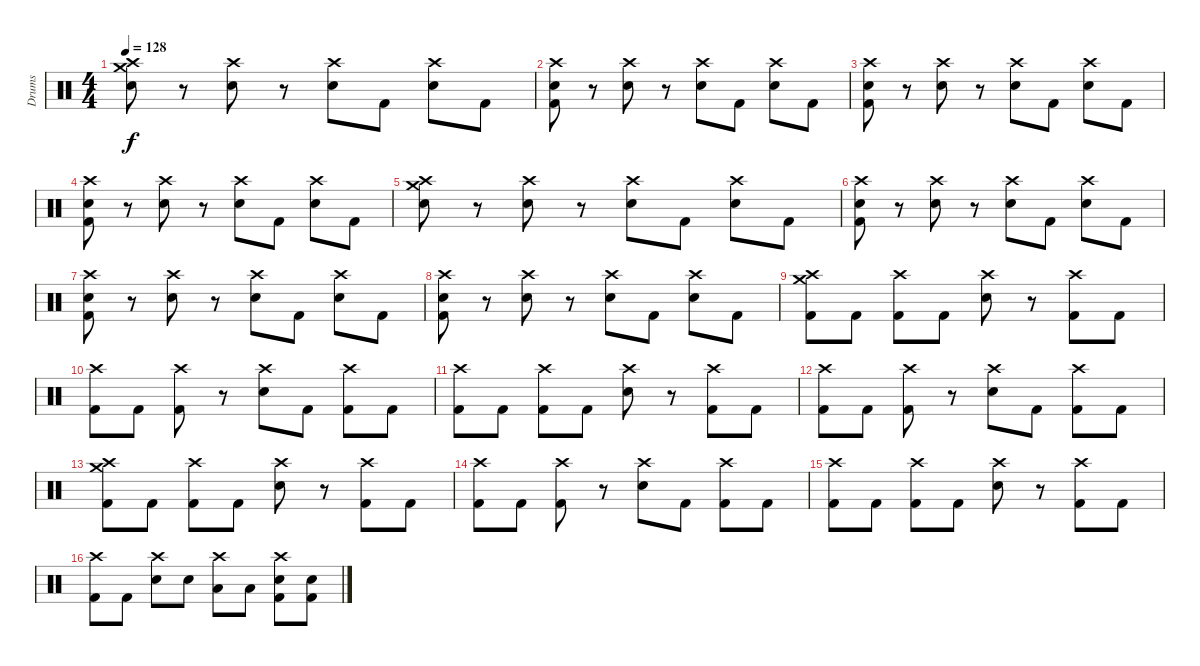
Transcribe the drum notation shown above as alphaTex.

\track ("Drums" "Drums") {instrument percussion}
\staff {score}
\articulation defaults
\ts (4 4)
\tempo 128
\clef neutral
\ks c
("Crash high (hit)" "Crash medium (hit)" "Snare (hit) 2").8{dy f volume 13} r.8 ("Crash high (hit)" "Snare (hit) 2").8 r.8 ("Crash high (hit)" "Snare (hit) 2").8 "Kick (hit) 2".8 ("Crash high (hit)" "Snare (hit) 2").8 "Kick (hit) 2".8 |
("Crash high (hit)" "Snare (hit) 2" "Kick (hit) 2").8 r.8 ("Crash high (hit)" "Snare (hit) 2").8 r.8 ("Crash high (hit)" "Snare (hit) 2").8 "Kick (hit) 2".8 ("Crash high (hit)" "Snare (hit) 2").8 "Kick (hit) 2".8 |
("Crash high (hit)" "Snare (hit) 2" "Kick (hit) 2").8 r.8 ("Crash high (hit)" "Snare (hit) 2").8 r.8 ("Crash high (hit)" "Snare (hit) 2").8 "Kick (hit) 2".8 ("Crash high (hit)" "Snare (hit) 2").8 "Kick (hit) 2".8 |
("Crash high (hit)" "Snare (hit) 2" "Kick (hit) 2").8 r.8 ("Crash high (hit)" "Snare (hit) 2").8 r.8 ("Crash high (hit)" "Snare (hit) 2").8 "Kick (hit) 2".8 ("Crash high (hit)" "Snare (hit) 2").8 "Kick (hit) 2".8 |
("Crash high (hit)" "Crash medium (hit)" "Snare (hit) 2").8 r.8 ("Crash high (hit)" "Snare (hit) 2").8 r.8 ("Crash high (hit)" "Snare (hit) 2").8 "Kick (hit) 2".8 ("Crash high (hit)" "Snare (hit) 2").8 "Kick (hit) 2".8 |
("Crash high (hit)" "Snare (hit) 2" "Kick (hit) 2").8 r.8 ("Crash high (hit)" "Snare (hit) 2").8 r.8 ("Crash high (hit)" "Snare (hit) 2").8 "Kick (hit) 2".8 ("Crash high (hit)" "Snare (hit) 2").8 "Kick (hit) 2".8 |
("Crash high (hit)" "Snare (hit) 2" "Kick (hit) 2").8 r.8 ("Crash high (hit)" "Snare (hit) 2").8 r.8 ("Crash high (hit)" "Snare (hit) 2").8 "Kick (hit) 2".8 ("Crash high (hit)" "Snare (hit) 2").8 "Kick (hit) 2".8 |
("Crash high (hit)" "Snare (hit) 2" "Kick (hit) 2").8 r.8 ("Crash high (hit)" "Snare (hit) 2").8 r.8 ("Crash high (hit)" "Snare (hit) 2").8 "Kick (hit) 2".8 ("Crash high (hit)" "Snare (hit) 2").8 "Kick (hit) 2".8 |
("Crash high (hit)" "Crash medium (hit)" "Kick (hit) 2").8 "Kick (hit) 2".8 ("Crash high (hit)" "Kick (hit) 2").8 "Kick (hit) 2".8 ("Crash high (hit)" "Snare (hit) 2").8 r.8 ("Crash high (hit)" "Kick (hit) 2").8 "Kick (hit) 2".8 |
("Crash high (hit)" "Kick (hit) 2").8 "Kick (hit) 2".8 ("Crash high (hit)" "Kick (hit) 2").8 r.8 ("Crash high (hit)" "Snare (hit) 2").8 "Kick (hit) 2".8 ("Crash high (hit)" "Kick (hit) 2").8 "Kick (hit) 2".8 |
("Crash high (hit)" "Kick (hit) 2").8 "Kick (hit) 2".8 ("Crash high (hit)" "Kick (hit) 2").8 "Kick (hit) 2".8 ("Crash high (hit)" "Snare (hit) 2").8 r.8 ("Crash high (hit)" "Kick (hit) 2").8 "Kick (hit) 2".8 |
("Crash high (hit)" "Kick (hit) 2").8 "Kick (hit) 2".8 ("Crash high (hit)" "Kick (hit) 2").8 r.8 ("Crash high (hit)" "Snare (hit) 2").8 "Kick (hit) 2".8 ("Crash high (hit)" "Kick (hit) 2").8 "Kick (hit) 2".8 |
("Crash high (hit)" "Crash medium (hit)" "Kick (hit) 2").8 "Kick (hit) 2".8 ("Crash high (hit)" "Kick (hit) 2").8 "Kick (hit) 2".8 ("Crash high (hit)" "Snare (hit) 2").8 r.8 ("Crash high (hit)" "Kick (hit) 2").8 "Kick (hit) 2".8 |
("Crash high (hit)" "Kick (hit) 2").8 "Kick (hit) 2".8 ("Crash high (hit)" "Kick (hit) 2").8 r.8 ("Crash high (hit)" "Snare (hit) 2").8 "Kick (hit) 2".8 ("Crash high (hit)" "Kick (hit) 2").8 "Kick (hit) 2".8 |
("Crash high (hit)" "Kick (hit) 2").8 "Kick (hit) 2".8 ("Crash high (hit)" "Kick (hit) 2").8 "Kick (hit) 2".8 ("Crash high (hit)" "Snare (hit) 2").8 r.8 ("Crash high (hit)" "Kick (hit) 2").8 "Kick (hit) 2".8 |
("Crash high (hit)" "Kick (hit) 2").8 "Kick (hit) 2".8 ("Crash high (hit)" "Snare (hit) 2").8 "Snare (hit) 2".8 ("Crash high (hit)" "Low Tom (hit)").8 "Low Tom (hit)".8 ("Crash high (hit)" "Snare (hit) 2" "Kick (hit) 2").8 ("Snare (hit) 2" "Kick (hit) 2").8
